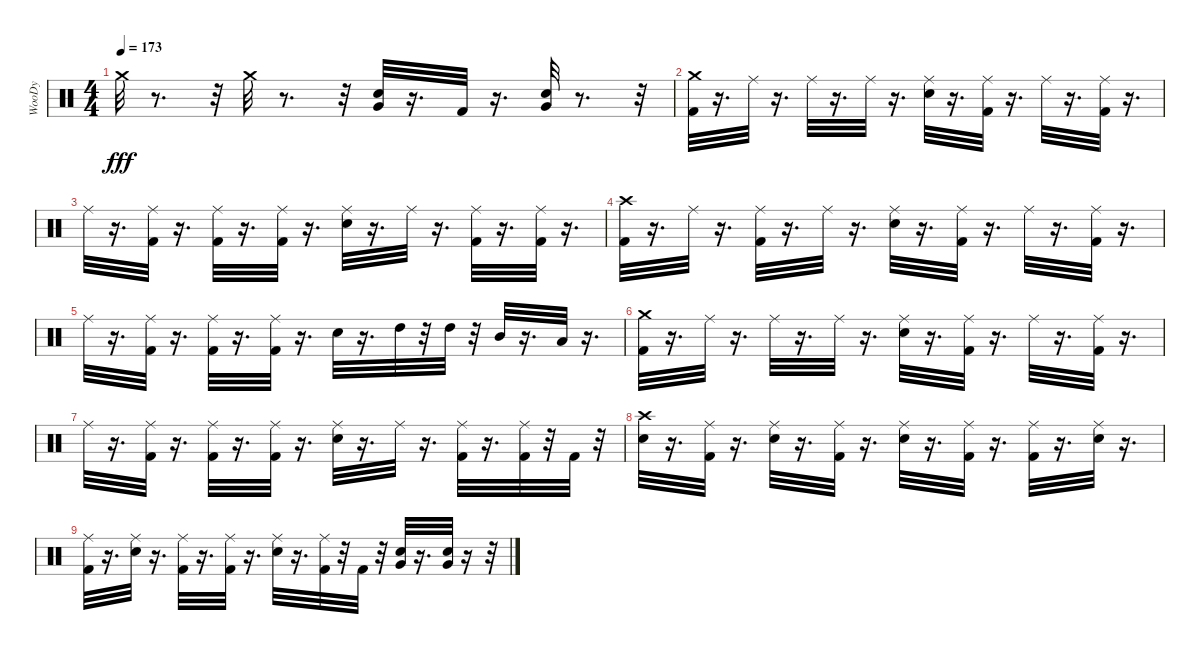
\track ("WooDy" "WooDy") {instrument percussion}
\staff {score}
\articulation defaults
\ts (4 4)
\tempo 173
\clef neutral
\ks c "Crash medium (hit)".32{dy fff}
r.8{d} r.32 "Crash medium (hit)".32 r.8{d} r.32 ("Electric Snare (hit)" "Very Low Tom (hit)").32 r.16{d} "Kick (hit) 2".32 r.16{d} ("Electric Snare (hit)" "Very Low Tom (hit)").32 r.8{d} r.32 |
("Kick (hit) 2" "Crash medium (hit)").32 r.16{d} "Ride (middle)".32 r.16{d} "Ride (middle)".32 r.16{d} "Ride (middle)".32 r.16{d} ("Electric Snare (hit)" "Ride (middle)").32 r.16{d} ("Kick (hit) 2" "Ride (middle)").32 r.16{d} "Ride (middle)".32 r.16{d} ("Kick (hit) 2" "Ride (middle)").32 r.16{d} |
"Ride (middle)".32 r.16{d} ("Kick (hit) 2" "Ride (middle)").32 r.16{d} ("Kick (hit) 2" "Ride (middle)").32 r.16{d} ("Kick (hit) 2" "Ride (middle)").32 r.16{d} ("Electric Snare (hit)" "Ride (middle)").32 r.16{d} "Ride (middle)".32 r.16{d} ("Kick (hit) 2" "Ride (middle)").32 r.16{d} ("Kick (hit) 2" "Ride (middle)").32 r.16{d} |
("Kick (hit) 2" "Crash high (hit)").32 r.16{d} "Ride (middle)".32 r.16{d} ("Kick (hit) 2" "Ride (middle)").32 r.16{d} "Ride (middle)".32 r.16{d} ("Electric Snare (hit)" "Ride (middle)").32 r.16{d} ("Kick (hit) 2" "Ride (middle)").32 r.16{d} "Ride (middle)".32 r.16{d} ("Kick (hit) 2" "Ride (middle)").32 r.16{d} |
"Ride (middle)".32 r.16{d} ("Kick (hit) 2" "Ride (middle)").32 r.16{d} ("Kick (hit) 2" "Ride (middle)").32 r.16{d} ("Kick (hit) 2" "Ride (middle)").32 r.16{d} "Electric Snare (hit)".32 r.16{d} "High Tom (hit)".32 r.32 "High Tom (hit)".32 r.32 "Mid Tom (hit)".32 r.16{d} "Low Tom (hit)".32 r.16{d} |
("Kick (hit) 2" "Crash medium (hit)").32 r.16{d} "Ride (middle)".32 r.16{d} "Ride (middle)".32 r.16{d} "Ride (middle)".32 r.16{d} ("Electric Snare (hit)" "Ride (middle)").32 r.16{d} ("Kick (hit) 2" "Ride (middle)").32 r.16{d} "Ride (middle)".32 r.16{d} ("Kick (hit) 2" "Ride (middle)").32 r.16{d} |
"Ride (middle)".32 r.16{d} ("Kick (hit) 2" "Ride (middle)").32 r.16{d} ("Kick (hit) 2" "Ride (middle)").32 r.16{d} ("Kick (hit) 2" "Ride (middle)").32 r.16{d} ("Electric Snare (hit)" "Ride (middle)").32 r.16{d} "Ride (middle)".32 r.16{d} ("Kick (hit) 2" "Ride (middle)").32 r.16{d} ("Kick (hit) 2" "Ride (middle)").32 r.32 "Kick (hit) 2".32 r.32 |
("Electric Snare (hit)" "Crash high (hit)").32 r.16{d} ("Kick (hit) 2" "Ride (middle)").32 r.16{d} ("Electric Snare (hit)" "Ride (middle)").32 r.16{d} ("Kick (hit) 2" "Ride (middle)").32 r.16{d} ("Electric Snare (hit)" "Ride (middle)").32 r.16{d} ("Kick (hit) 2" "Ride (middle)").32 r.16{d} ("Kick (hit) 2" "Ride (middle)").32 r.16{d} ("Electric Snare (hit)" "Ride (middle)").32 r.16{d} |
("Kick (hit) 2" "Ride (middle)").32 r.16{d} ("Electric Snare (hit)" "Ride (middle)").32 r.16{d} ("Kick (hit) 2" "Ride (middle)").32 r.16{d} ("Kick (hit) 2" "Ride (middle)").32 r.16{d} ("Electric Snare (hit)" "Ride (middle)").32 r.16{d} ("Kick (hit) 2" "Ride (middle)").32 r.32 "Kick (hit) 2".32 r.32 ("Electric Snare (hit)" "Very Low Tom (hit)").32 r.16{d} ("Electric Snare (hit)" "Very Low Tom (hit)").32 r.16 r.32
